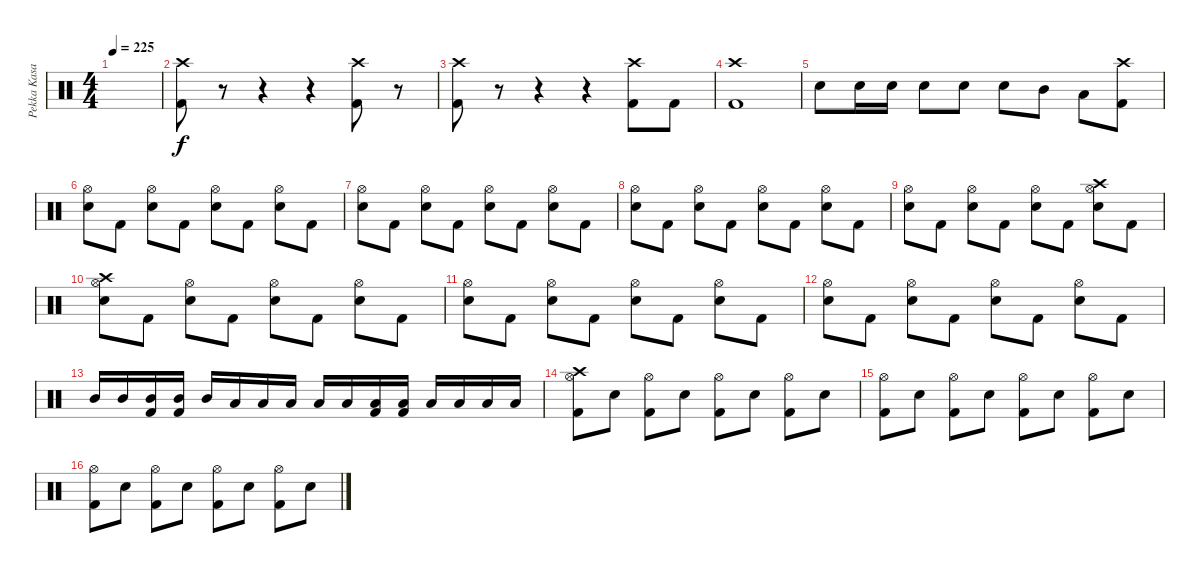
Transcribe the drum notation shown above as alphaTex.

\track ("Pekka Kasari" "Pekka Kasa") {instrument percussion}
\staff {score}
\articulation defaults
\ts (4 4)
\tempo 225
\clef neutral
\ks c
|
("Crash high (hit)" "Kick (hit) 2").8 r.8 r.4 r.4 ("Crash high (hit)" "Kick (hit) 2").8 r.8 |
("Crash high (hit)" "Kick (hit) 2").8 r.8 r.4 r.4 ("Crash high (hit)" "Kick (hit) 2").8 "Kick (hit) 2".8 |
("Kick (hit) 2" "Crash high (hit)").1 |
"Snare (hit) 2".8 "Snare (hit) 2".16 "Snare (hit) 2".16 "Snare (hit) 2".8 "Snare (hit) 2".8 "Snare (hit) 2".8 "Mid Tom (hit)".8 "Low Tom (hit)".8 ("Crash high (hit)" "Kick (hit) 2").8 |
("Hi-Hat (open)" "Snare (hit) 2").8 "Kick (hit) 2".8 ("Hi-Hat (open)" "Snare (hit) 2").8 "Kick (hit) 2".8 ("Hi-Hat (open)" "Snare (hit) 2").8 "Kick (hit) 2".8 ("Hi-Hat (open)" "Snare (hit) 2").8 "Kick (hit) 2".8 |
("Hi-Hat (open)" "Snare (hit) 2").8 "Kick (hit) 2".8 ("Hi-Hat (open)" "Snare (hit) 2").8 "Kick (hit) 2".8 ("Hi-Hat (open)" "Snare (hit) 2").8 "Kick (hit) 2".8 ("Hi-Hat (open)" "Snare (hit) 2").8 "Kick (hit) 2".8 |
("Hi-Hat (open)" "Snare (hit) 2").8 "Kick (hit) 2".8 ("Hi-Hat (open)" "Snare (hit) 2").8 "Kick (hit) 2".8 ("Hi-Hat (open)" "Snare (hit) 2").8 "Kick (hit) 2".8 ("Hi-Hat (open)" "Snare (hit) 2").8 "Kick (hit) 2".8 |
("Hi-Hat (open)" "Snare (hit) 2").8 "Kick (hit) 2".8 ("Hi-Hat (open)" "Snare (hit) 2").8 "Kick (hit) 2".8 ("Hi-Hat (open)" "Snare (hit) 2").8 "Kick (hit) 2".8 ("Hi-Hat (open)" "Snare (hit) 2" "Crash high (hit)").8 "Kick (hit) 2".8 |
("Crash high (hit)" "Hi-Hat (open)" "Snare (hit) 2").8 "Kick (hit) 2".8 ("Hi-Hat (open)" "Snare (hit) 2").8 "Kick (hit) 2".8 ("Hi-Hat (open)" "Snare (hit) 2").8 "Kick (hit) 2".8 ("Hi-Hat (open)" "Snare (hit) 2").8 "Kick (hit) 2".8 |
("Hi-Hat (open)" "Snare (hit) 2").8 "Kick (hit) 2".8 ("Hi-Hat (open)" "Snare (hit) 2").8 "Kick (hit) 2".8 ("Hi-Hat (open)" "Snare (hit) 2").8 "Kick (hit) 2".8 ("Hi-Hat (open)" "Snare (hit) 2").8 "Kick (hit) 2".8 |
("Hi-Hat (open)" "Snare (hit) 2").8 "Kick (hit) 2".8 ("Hi-Hat (open)" "Snare (hit) 2").8 "Kick (hit) 2".8 ("Hi-Hat (open)" "Snare (hit) 2").8 "Kick (hit) 2".8 ("Hi-Hat (open)" "Snare (hit) 2").8 "Kick (hit) 2".8 |
"Mid Tom (hit)".16 "Mid Tom (hit)".16 ("Kick (hit) 2" "Mid Tom (hit)").16 ("Kick (hit) 2" "Mid Tom (hit)").16 "Mid Tom (hit)".16 "Low Tom (hit)".16 "Low Tom (hit)".16 "Low Tom (hit)".16 "Low Tom (hit)".16 "Low Tom (hit)".16 ("Kick (hit) 2" "Low Tom (hit)").16 ("Kick (hit) 2" "Low Tom (hit)").16 "Low Floor Tom (hit)".16 "Low Floor Tom (hit)".16 "Low Floor Tom (hit)".16 "Low Floor Tom (hit)".16 |
("Crash high (hit)" "Hi-Hat (open)" "Kick (hit) 2").8 "Snare (hit) 2".8 ("Hi-Hat (open)" "Kick (hit) 2").8 "Snare (hit) 2".8 ("Hi-Hat (open)" "Kick (hit) 2").8 "Snare (hit) 2".8 ("Hi-Hat (open)" "Kick (hit) 2").8 "Snare (hit) 2".8 |
("Hi-Hat (open)" "Kick (hit) 2").8 "Snare (hit) 2".8 ("Hi-Hat (open)" "Kick (hit) 2").8 "Snare (hit) 2".8 ("Hi-Hat (open)" "Kick (hit) 2").8 "Snare (hit) 2".8 ("Hi-Hat (open)" "Kick (hit) 2").8 "Snare (hit) 2".8 |
("Hi-Hat (open)" "Kick (hit) 2").8 "Snare (hit) 2".8 ("Hi-Hat (open)" "Kick (hit) 2").8 "Snare (hit) 2".8 ("Hi-Hat (open)" "Kick (hit) 2").8 "Snare (hit) 2".8 ("Hi-Hat (open)" "Kick (hit) 2").8 "Snare (hit) 2".8
